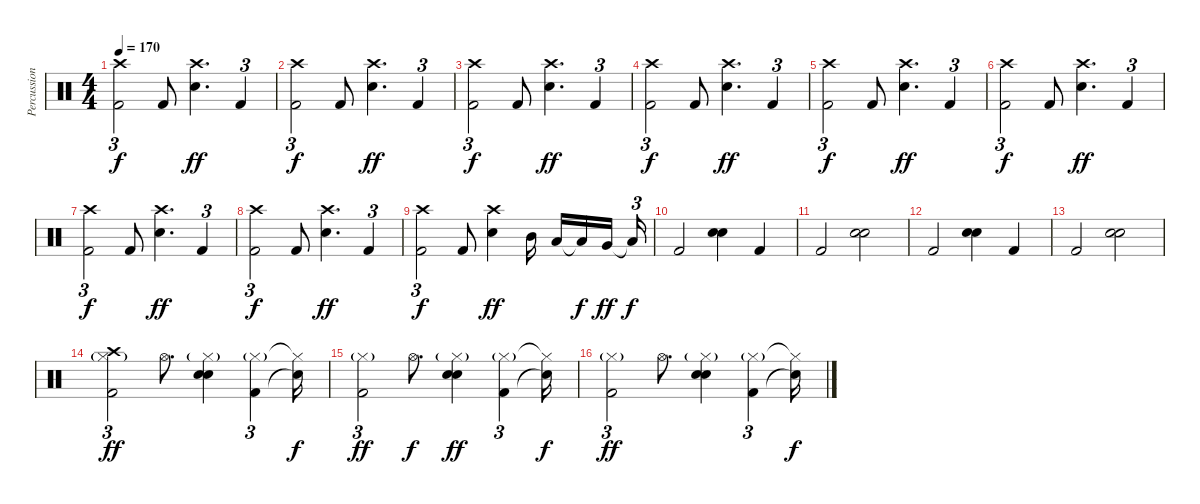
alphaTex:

\track ("Percussion" "Percussion") {instrument percussion bank 127}
\staff {score}
\articulation defaults
\ts (4 4)
\tempo 170
\clef neutral
\ks c
("Crash high (hit)" "Kick (hit) 2").2{tu (3 2) dy f} "Kick (hit) 2".8 ("Crash high (hit)" "Snare (hit) 2").4{d dy ff} "Kick (hit) 2".4{tu (3 2)} |
("Crash high (hit)" "Kick (hit) 2").2{tu (3 2) dy f} "Kick (hit) 2".8 ("Crash high (hit)" "Snare (hit) 2").4{d dy ff} "Kick (hit) 2".4{tu (3 2)} |
("Crash high (hit)" "Kick (hit) 2").2{tu (3 2) dy f} "Kick (hit) 2".8 ("Crash high (hit)" "Snare (hit) 2").4{d dy ff} "Kick (hit) 2".4{tu (3 2)} |
("Crash high (hit)" "Kick (hit) 2").2{tu (3 2) dy f} "Kick (hit) 2".8 ("Crash high (hit)" "Snare (hit) 2").4{d dy ff} "Kick (hit) 2".4{tu (3 2)} |
("Crash high (hit)" "Kick (hit) 2").2{tu (3 2) dy f} "Kick (hit) 2".8 ("Crash high (hit)" "Snare (hit) 2").4{d dy ff} "Kick (hit) 2".4{tu (3 2)} |
("Crash high (hit)" "Kick (hit) 2").2{tu (3 2) dy f} "Kick (hit) 2".8 ("Crash high (hit)" "Snare (hit) 2").4{d dy ff} "Kick (hit) 2".4{tu (3 2)} |
("Crash high (hit)" "Kick (hit) 2").2{tu (3 2) dy f} "Kick (hit) 2".8 ("Crash high (hit)" "Snare (hit) 2").4{d dy ff} "Kick (hit) 2".4{tu (3 2)} |
("Crash high (hit)" "Kick (hit) 2").2{tu (3 2) dy f} "Kick (hit) 2".8 ("Crash high (hit)" "Snare (hit) 2").4{d dy ff} "Kick (hit) 2".4{tu (3 2)} |
("Crash high (hit)" "Kick (hit) 2").2{tu (3 2) dy f} "Kick (hit) 2".8 ("Crash high (hit)" "Snare (hit) 2").4{dy ff} "Mid Tom (hit)".16 "Low Tom (hit)".16 "Low Tom (hit)"{t}.16{dy f} "Very Low Tom (hit)".16{dy ff beam splitsecondary} "Low Floor Tom (hit)"{t}.16{tu (3 2) dy f} |
"Kick (hit) 2".2 ("Snare (hit) 2" "Electric Snare (hit)").4 "Kick (hit) 2".4 |
"Kick (hit) 2".2 ("Snare (hit) 2" "Electric Snare (hit)").2 |
"Kick (hit) 2".2 ("Snare (hit) 2" "Electric Snare (hit)").4 "Kick (hit) 2".4 |
"Kick (hit) 2".2 ("Snare (hit) 2" "Electric Snare (hit)").2 |
("Hi-Hat (closed)"{g} "Kick (hit) 2" "Crash high (hit)").2{tu (3 2) dy ff} "Hi-Hat (open)".8{d} ("Hi-Hat (closed)"{g} "Snare (hit) 2" "Electric Snare (hit)").4 ("Hi-Hat (closed)"{g} "Kick (hit) 2").4{tu (3 2)} ("Hi-Hat (closed)"{t} "Snare (hit)"{t}).16{dy f} |
("Hi-Hat (closed)"{g} "Kick (hit) 2").2{tu (3 2) dy ff} "Hi-Hat (open)".8{d dy f} ("Hi-Hat (closed)"{g} "Snare (hit) 2" "Electric Snare (hit)").4{dy ff} ("Hi-Hat (closed)"{g} "Kick (hit) 2").4{tu (3 2)} ("Hi-Hat (closed)"{t} "Snare (hit)"{t}).16{dy f} |
("Hi-Hat (closed)"{g} "Kick (hit) 2").2{tu (3 2) dy ff} "Hi-Hat (open)".8{d} ("Hi-Hat (closed)"{g} "Snare (hit) 2" "Electric Snare (hit)").4 ("Hi-Hat (closed)"{g} "Kick (hit) 2").4{tu (3 2)} ("Hi-Hat (closed)"{t} "Snare (hit)"{t}).16{dy f}
